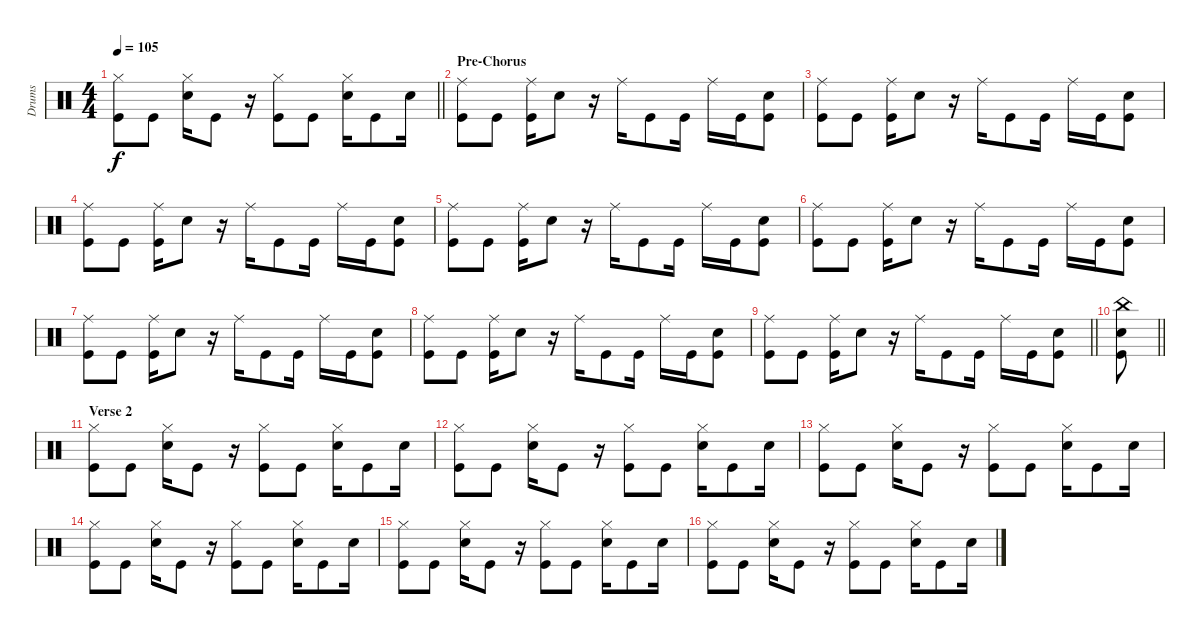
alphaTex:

\track ("Drums" "Drums") {instrument percussion}
\staff {score}
\articulation defaults
\ts (4 4)
\tempo 105
\clef neutral
\barLineRight lightlight
\ks c
("Hi-Hat (closed)" "Kick (hit)").8{dy f} "Kick (hit)".8 ("Hi-Hat (closed)" "Snare (hit) 2").16 "Kick (hit)".8 r.16 ("Hi-Hat (closed)" "Kick (hit)").8 "Kick (hit)".8 ("Hi-Hat (closed)" "Snare (hit) 2").16 "Kick (hit)".8 "Snare (hit) 2".16 |
\section ("" "Pre-Chorus")
("Ride (middle)" "Kick (hit)").8 "Kick (hit)".8 ("Ride (middle)" "Kick (hit)").16 "Snare (hit) 2".8 r.16 "Ride (middle)".16 "Kick (hit)".8 "Kick (hit)".16 "Ride (middle)".16 "Kick (hit)".16 ("Snare (hit) 2" "Kick (hit)").8 |
("Ride (middle)" "Kick (hit)").8 "Kick (hit)".8 ("Ride (middle)" "Kick (hit)").16 "Snare (hit) 2".8 r.16 "Ride (middle)".16 "Kick (hit)".8 "Kick (hit)".16 "Ride (middle)".16 "Kick (hit)".16 ("Snare (hit) 2" "Kick (hit)").8 |
("Ride (middle)" "Kick (hit)").8 "Kick (hit)".8 ("Ride (middle)" "Kick (hit)").16 "Snare (hit) 2".8 r.16 "Ride (middle)".16 "Kick (hit)".8 "Kick (hit)".16 "Ride (middle)".16 "Kick (hit)".16 ("Snare (hit) 2" "Kick (hit)").8 |
("Ride (middle)" "Kick (hit)").8 "Kick (hit)".8 ("Ride (middle)" "Kick (hit)").16 "Snare (hit) 2".8 r.16 "Ride (middle)".16 "Kick (hit)".8 "Kick (hit)".16 "Ride (middle)".16 "Kick (hit)".16 ("Snare (hit) 2" "Kick (hit)").8 |
("Ride (middle)" "Kick (hit)").8 "Kick (hit)".8 ("Ride (middle)" "Kick (hit)").16 "Snare (hit) 2".8 r.16 "Ride (middle)".16 "Kick (hit)".8 "Kick (hit)".16 "Ride (middle)".16 "Kick (hit)".16 ("Snare (hit) 2" "Kick (hit)").8 |
("Ride (middle)" "Kick (hit)").8 "Kick (hit)".8 ("Ride (middle)" "Kick (hit)").16 "Snare (hit) 2".8 r.16 "Ride (middle)".16 "Kick (hit)".8 "Kick (hit)".16 "Ride (middle)".16 "Kick (hit)".16 ("Snare (hit) 2" "Kick (hit)").8 |
("Ride (middle)" "Kick (hit)").8 "Kick (hit)".8 ("Ride (middle)" "Kick (hit)").16 "Snare (hit) 2".8 r.16 "Ride (middle)".16 "Kick (hit)".8 "Kick (hit)".16 "Ride (middle)".16 "Kick (hit)".16 ("Snare (hit) 2" "Kick (hit)").8 |
\barLineRight lightlight
("Ride (middle)" "Kick (hit)").8 "Kick (hit)".8 ("Ride (middle)" "Kick (hit)").16 "Snare (hit) 2".8 r.16 "Ride (middle)".16 "Kick (hit)".8 "Kick (hit)".16 "Ride (middle)".16 "Kick (hit)".16 ("Snare (hit) 2" "Kick (hit)").8 |
\barLineRight lightlight
("China (hit)" "Snare (hit) 2" "Kick (hit)").8 |
\section ("" "Verse 2")
("Hi-Hat (closed)" "Kick (hit)").8 "Kick (hit)".8 ("Hi-Hat (closed)" "Snare (hit) 2").16 "Kick (hit)".8 r.16 ("Hi-Hat (closed)" "Kick (hit)").8 "Kick (hit)".8 ("Hi-Hat (closed)" "Snare (hit) 2").16 "Kick (hit)".8 "Snare (hit) 2".16 |
("Hi-Hat (closed)" "Kick (hit)").8 "Kick (hit)".8 ("Hi-Hat (closed)" "Snare (hit) 2").16 "Kick (hit)".8 r.16 ("Hi-Hat (closed)" "Kick (hit)").8 "Kick (hit)".8 ("Hi-Hat (closed)" "Snare (hit) 2").16 "Kick (hit)".8 "Snare (hit) 2".16 |
("Hi-Hat (closed)" "Kick (hit)").8 "Kick (hit)".8 ("Hi-Hat (closed)" "Snare (hit) 2").16 "Kick (hit)".8 r.16 ("Hi-Hat (closed)" "Kick (hit)").8 "Kick (hit)".8 ("Hi-Hat (closed)" "Snare (hit) 2").16 "Kick (hit)".8 "Snare (hit) 2".16 |
("Hi-Hat (closed)" "Kick (hit)").8 "Kick (hit)".8 ("Hi-Hat (closed)" "Snare (hit) 2").16 "Kick (hit)".8 r.16 ("Hi-Hat (closed)" "Kick (hit)").8 "Kick (hit)".8 ("Hi-Hat (closed)" "Snare (hit) 2").16 "Kick (hit)".8 "Snare (hit) 2".16 |
("Hi-Hat (closed)" "Kick (hit)").8 "Kick (hit)".8 ("Hi-Hat (closed)" "Snare (hit) 2").16 "Kick (hit)".8 r.16 ("Hi-Hat (closed)" "Kick (hit)").8 "Kick (hit)".8 ("Hi-Hat (closed)" "Snare (hit) 2").16 "Kick (hit)".8 "Snare (hit) 2".16 |
("Hi-Hat (closed)" "Kick (hit)").8 "Kick (hit)".8 ("Hi-Hat (closed)" "Snare (hit) 2").16 "Kick (hit)".8 r.16 ("Hi-Hat (closed)" "Kick (hit)").8 "Kick (hit)".8 ("Hi-Hat (closed)" "Snare (hit) 2").16 "Kick (hit)".8 "Snare (hit) 2".16
